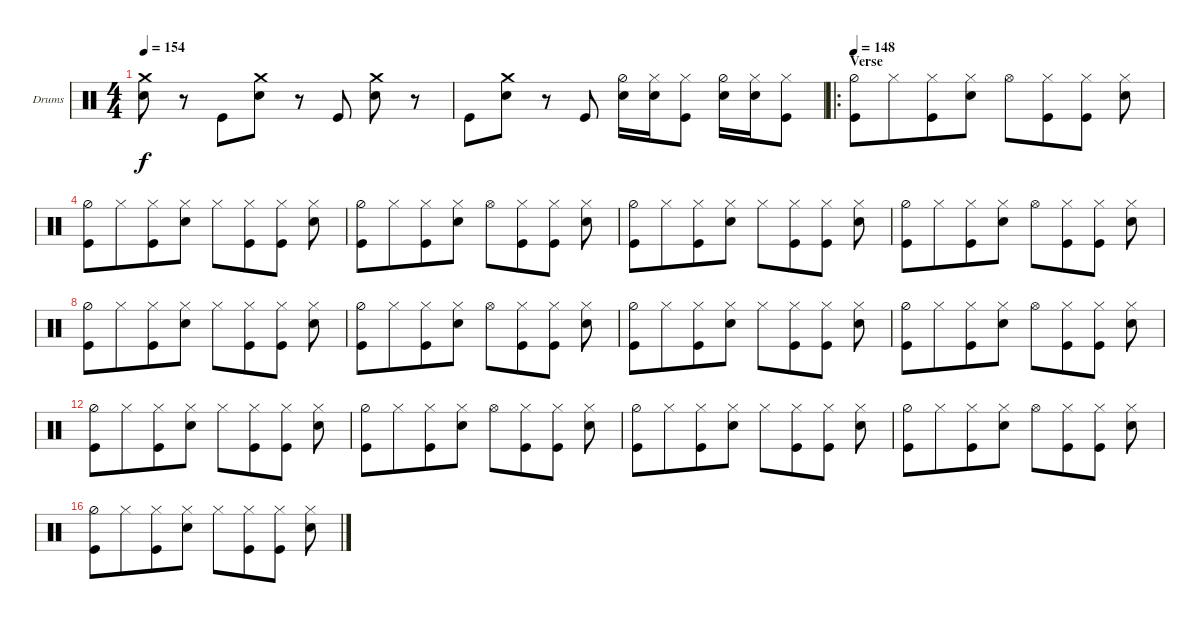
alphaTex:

\defaultSystemsLayout 4
\bracketExtendMode nobrackets
\firstSystemTrackNameOrientation horizontal
\otherSystemsTrackNameOrientation horizontal
\defaultBarNumberDisplay FirstOfSystem
\track ("Drum" "Drums") {instrument percussion}
\staff {score}
\articulation defaults
\ts (4 4)
\tempo 154
\clef neutral
\ks c
("Crash medium (hit)" "Snare (hit) 2").8{dy f} r.8 "Kick (hit)".8 ("Crash medium (hit)" "Snare (hit) 2").8 r.8 "Kick (hit)".8 ("Crash medium (hit)" "Snare (hit) 2").8 r.8 |
"Kick (hit)".8 ("Crash medium (hit)" "Snare (hit) 2").8 r.8 "Kick (hit)".8 ("Snare (hit) 2" "Hi-Hat (half)").16 ("Snare (hit) 2" "Hi-Hat (closed)").16 ("Hi-Hat (closed)" "Kick (hit)").8 ("Snare (hit) 2" "Hi-Hat (half)").16 ("Snare (hit) 2" "Hi-Hat (closed)").16 ("Hi-Hat (closed)" "Kick (hit)").8 |
\ro
\section ("" "Verse")
\tempo 148
("Hi-Hat (half)" "Kick (hit)").8 "Hi-Hat (closed)".8{beam merge} ("Kick (hit)" "Hi-Hat (closed)").8 ("Snare (hit) 2" "Hi-Hat (closed)").8 "Hi-Hat (open)".8 ("Hi-Hat (closed)" "Kick (hit)").8{beam merge} ("Kick (hit)" "Hi-Hat (closed)").8{beam split} ("Snare (hit) 2" "Hi-Hat (closed)").8 |
("Hi-Hat (half)" "Kick (hit)").8 "Hi-Hat (closed)".8{beam merge} ("Kick (hit)" "Hi-Hat (closed)").8 ("Snare (hit) 2" "Hi-Hat (closed)").8 "Hi-Hat (closed)".8 ("Hi-Hat (closed)" "Kick (hit)").8{beam merge} ("Kick (hit)" "Hi-Hat (closed)").8{beam split} ("Snare (hit) 2" "Hi-Hat (closed)").8 |
("Hi-Hat (half)" "Kick (hit)").8 "Hi-Hat (closed)".8{beam merge} ("Kick (hit)" "Hi-Hat (closed)").8 ("Snare (hit) 2" "Hi-Hat (closed)").8 "Hi-Hat (open)".8 ("Kick (hit)" "Hi-Hat (closed)").8{beam merge} ("Kick (hit)" "Hi-Hat (closed)").8{beam split} ("Snare (hit) 2" "Hi-Hat (closed)").8 |
("Kick (hit)" "Hi-Hat (half)").8 "Hi-Hat (closed)".8{beam merge} ("Kick (hit)" "Hi-Hat (closed)").8 ("Snare (hit) 2" "Hi-Hat (closed)").8 "Hi-Hat (closed)".8 ("Kick (hit)" "Hi-Hat (closed)").8{beam merge} ("Kick (hit)" "Hi-Hat (closed)").8{beam split} ("Snare (hit) 2" "Hi-Hat (closed)").8 |
("Hi-Hat (half)" "Kick (hit)").8 "Hi-Hat (closed)".8{beam merge} ("Kick (hit)" "Hi-Hat (closed)").8 ("Snare (hit) 2" "Hi-Hat (closed)").8 "Hi-Hat (open)".8 ("Hi-Hat (closed)" "Kick (hit)").8{beam merge} ("Kick (hit)" "Hi-Hat (closed)").8{beam split} ("Snare (hit) 2" "Hi-Hat (closed)").8 |
("Hi-Hat (half)" "Kick (hit)").8 "Hi-Hat (closed)".8{beam merge} ("Kick (hit)" "Hi-Hat (closed)").8 ("Snare (hit) 2" "Hi-Hat (closed)").8 "Hi-Hat (closed)".8 ("Hi-Hat (closed)" "Kick (hit)").8{beam merge} ("Kick (hit)" "Hi-Hat (closed)").8{beam split} ("Snare (hit) 2" "Hi-Hat (closed)").8 |
("Hi-Hat (half)" "Kick (hit)").8 "Hi-Hat (closed)".8{beam merge} ("Kick (hit)" "Hi-Hat (closed)").8 ("Snare (hit) 2" "Hi-Hat (closed)").8 "Hi-Hat (open)".8 ("Kick (hit)" "Hi-Hat (closed)").8{beam merge} ("Kick (hit)" "Hi-Hat (closed)").8{beam split} ("Snare (hit) 2" "Hi-Hat (closed)").8 |
("Kick (hit)" "Hi-Hat (half)").8 "Hi-Hat (closed)".8{beam merge} ("Kick (hit)" "Hi-Hat (closed)").8 ("Snare (hit) 2" "Hi-Hat (closed)").8 "Hi-Hat (closed)".8 ("Kick (hit)" "Hi-Hat (closed)").8{beam merge} ("Kick (hit)" "Hi-Hat (closed)").8{beam split} ("Snare (hit) 2" "Hi-Hat (closed)").8 |
("Hi-Hat (half)" "Kick (hit)").8 "Hi-Hat (closed)".8{beam merge} ("Kick (hit)" "Hi-Hat (closed)").8 ("Snare (hit) 2" "Hi-Hat (closed)").8 "Hi-Hat (open)".8 ("Hi-Hat (closed)" "Kick (hit)").8{beam merge} ("Kick (hit)" "Hi-Hat (closed)").8{beam split} ("Snare (hit) 2" "Hi-Hat (closed)").8 |
("Hi-Hat (half)" "Kick (hit)").8 "Hi-Hat (closed)".8{beam merge} ("Kick (hit)" "Hi-Hat (closed)").8 ("Snare (hit) 2" "Hi-Hat (closed)").8 "Hi-Hat (closed)".8 ("Hi-Hat (closed)" "Kick (hit)").8{beam merge} ("Kick (hit)" "Hi-Hat (closed)").8{beam split} ("Snare (hit) 2" "Hi-Hat (closed)").8 |
("Hi-Hat (half)" "Kick (hit)").8 "Hi-Hat (closed)".8{beam merge} ("Kick (hit)" "Hi-Hat (closed)").8 ("Snare (hit) 2" "Hi-Hat (closed)").8 "Hi-Hat (open)".8 ("Kick (hit)" "Hi-Hat (closed)").8{beam merge} ("Kick (hit)" "Hi-Hat (closed)").8{beam split} ("Snare (hit) 2" "Hi-Hat (closed)").8 |
("Kick (hit)" "Hi-Hat (half)").8 "Hi-Hat (closed)".8{beam merge} ("Kick (hit)" "Hi-Hat (closed)").8 ("Snare (hit) 2" "Hi-Hat (closed)").8 "Hi-Hat (closed)".8 ("Kick (hit)" "Hi-Hat (closed)").8{beam merge} ("Kick (hit)" "Hi-Hat (closed)").8{beam split} ("Snare (hit) 2" "Hi-Hat (closed)").8 |
("Hi-Hat (half)" "Kick (hit)").8 "Hi-Hat (closed)".8{beam merge} ("Kick (hit)" "Hi-Hat (closed)").8 ("Snare (hit) 2" "Hi-Hat (closed)").8 "Hi-Hat (open)".8 ("Hi-Hat (closed)" "Kick (hit)").8{beam merge} ("Kick (hit)" "Hi-Hat (closed)").8{beam split} ("Snare (hit) 2" "Hi-Hat (closed)").8 |
("Hi-Hat (half)" "Kick (hit)").8 "Hi-Hat (closed)".8{beam merge} ("Kick (hit)" "Hi-Hat (closed)").8 ("Snare (hit) 2" "Hi-Hat (closed)").8 "Hi-Hat (closed)".8 ("Hi-Hat (closed)" "Kick (hit)").8{beam merge} ("Kick (hit)" "Hi-Hat (closed)").8{beam split} ("Snare (hit) 2" "Hi-Hat (closed)").8
